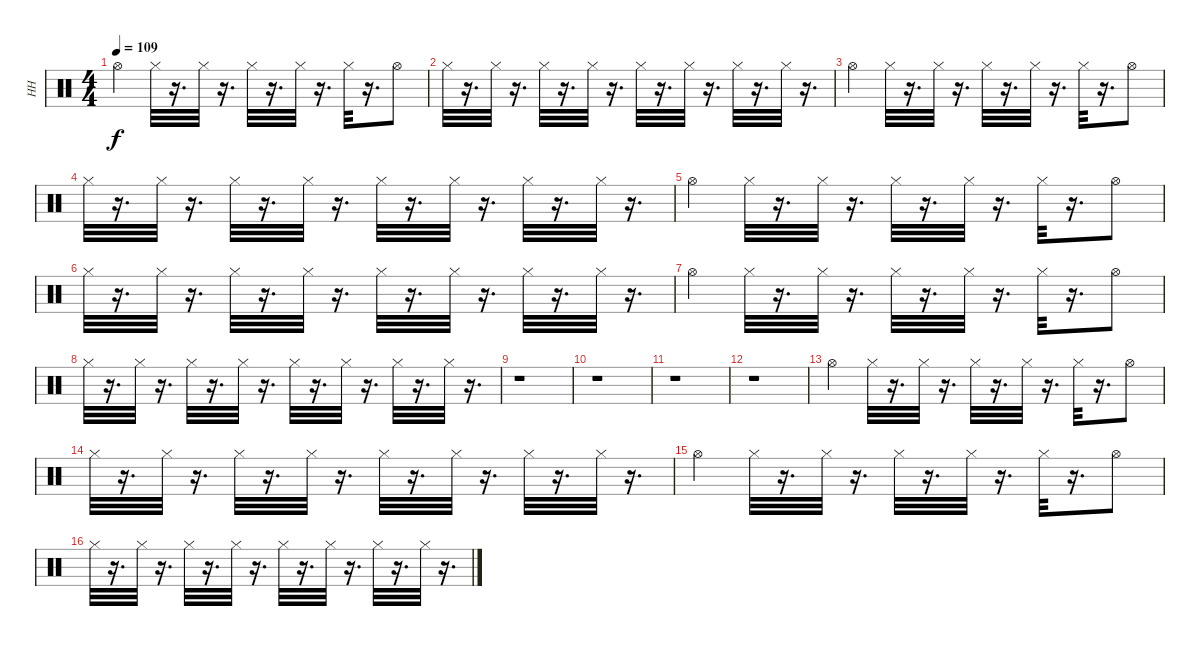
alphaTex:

\track ("HH" "HH") {instrument percussion}
\staff {score}
\articulation defaults
\ts (4 4)
\tempo 109
\clef neutral
\ks c "Hi-Hat (open)".4{dy f} "Hi-Hat (closed)".32
r.16{d} "Hi-Hat (closed)".32 r.16{d} "Hi-Hat (closed)".32 r.16{d} "Hi-Hat (closed)".32 r.16{d} "Hi-Hat (closed)".32 r.16{d} "Hi-Hat (open)".8 |
"Hi-Hat (closed)".32 r.16{d} "Hi-Hat (closed)".32 r.16{d} "Hi-Hat (closed)".32 r.16{d} "Hi-Hat (closed)".32 r.16{d} "Hi-Hat (closed)".32 r.16{d} "Hi-Hat (closed)".32 r.16{d} "Hi-Hat (closed)".32 r.16{d} "Hi-Hat (closed)".32 r.16{d} |
"Hi-Hat (open)".4 "Hi-Hat (closed)".32 r.16{d} "Hi-Hat (closed)".32 r.16{d} "Hi-Hat (closed)".32 r.16{d} "Hi-Hat (closed)".32 r.16{d} "Hi-Hat (closed)".32 r.16{d} "Hi-Hat (open)".8 |
"Hi-Hat (closed)".32 r.16{d} "Hi-Hat (closed)".32 r.16{d} "Hi-Hat (closed)".32 r.16{d} "Hi-Hat (closed)".32 r.16{d} "Hi-Hat (closed)".32 r.16{d} "Hi-Hat (closed)".32 r.16{d} "Hi-Hat (closed)".32 r.16{d} "Hi-Hat (closed)".32 r.16{d} |
"Hi-Hat (open)".4 "Hi-Hat (closed)".32 r.16{d} "Hi-Hat (closed)".32 r.16{d} "Hi-Hat (closed)".32 r.16{d} "Hi-Hat (closed)".32 r.16{d} "Hi-Hat (closed)".32 r.16{d} "Hi-Hat (open)".8 |
"Hi-Hat (closed)".32 r.16{d} "Hi-Hat (closed)".32 r.16{d} "Hi-Hat (closed)".32 r.16{d} "Hi-Hat (closed)".32 r.16{d} "Hi-Hat (closed)".32 r.16{d} "Hi-Hat (closed)".32 r.16{d} "Hi-Hat (closed)".32 r.16{d} "Hi-Hat (closed)".32 r.16{d} |
"Hi-Hat (open)".4 "Hi-Hat (closed)".32 r.16{d} "Hi-Hat (closed)".32 r.16{d} "Hi-Hat (closed)".32 r.16{d} "Hi-Hat (closed)".32 r.16{d} "Hi-Hat (closed)".32 r.16{d} "Hi-Hat (open)".8 |
"Hi-Hat (closed)".32 r.16{d} "Hi-Hat (closed)".32 r.16{d} "Hi-Hat (closed)".32 r.16{d} "Hi-Hat (closed)".32 r.16{d} "Hi-Hat (closed)".32 r.16{d} "Hi-Hat (closed)".32 r.16{d} "Hi-Hat (closed)".32 r.16{d} "Hi-Hat (closed)".32 r.16{d} |
r.1 |
r.1 |
r.1 |
r.1 |
"Hi-Hat (open)".4 "Hi-Hat (closed)".32 r.16{d} "Hi-Hat (closed)".32 r.16{d} "Hi-Hat (closed)".32 r.16{d} "Hi-Hat (closed)".32 r.16{d} "Hi-Hat (closed)".32 r.16{d} "Hi-Hat (open)".8 |
"Hi-Hat (closed)".32 r.16{d} "Hi-Hat (closed)".32 r.16{d} "Hi-Hat (closed)".32 r.16{d} "Hi-Hat (closed)".32 r.16{d} "Hi-Hat (closed)".32 r.16{d} "Hi-Hat (closed)".32 r.16{d} "Hi-Hat (closed)".32 r.16{d} "Hi-Hat (closed)".32 r.16{d} |
"Hi-Hat (open)".4 "Hi-Hat (closed)".32 r.16{d} "Hi-Hat (closed)".32 r.16{d} "Hi-Hat (closed)".32 r.16{d} "Hi-Hat (closed)".32 r.16{d} "Hi-Hat (closed)".32 r.16{d} "Hi-Hat (open)".8 |
"Hi-Hat (closed)".32 r.16{d} "Hi-Hat (closed)".32 r.16{d} "Hi-Hat (closed)".32 r.16{d} "Hi-Hat (closed)".32 r.16{d} "Hi-Hat (closed)".32 r.16{d} "Hi-Hat (closed)".32 r.16{d} "Hi-Hat (closed)".32 r.16{d} "Hi-Hat (closed)".32 r.16{d}
